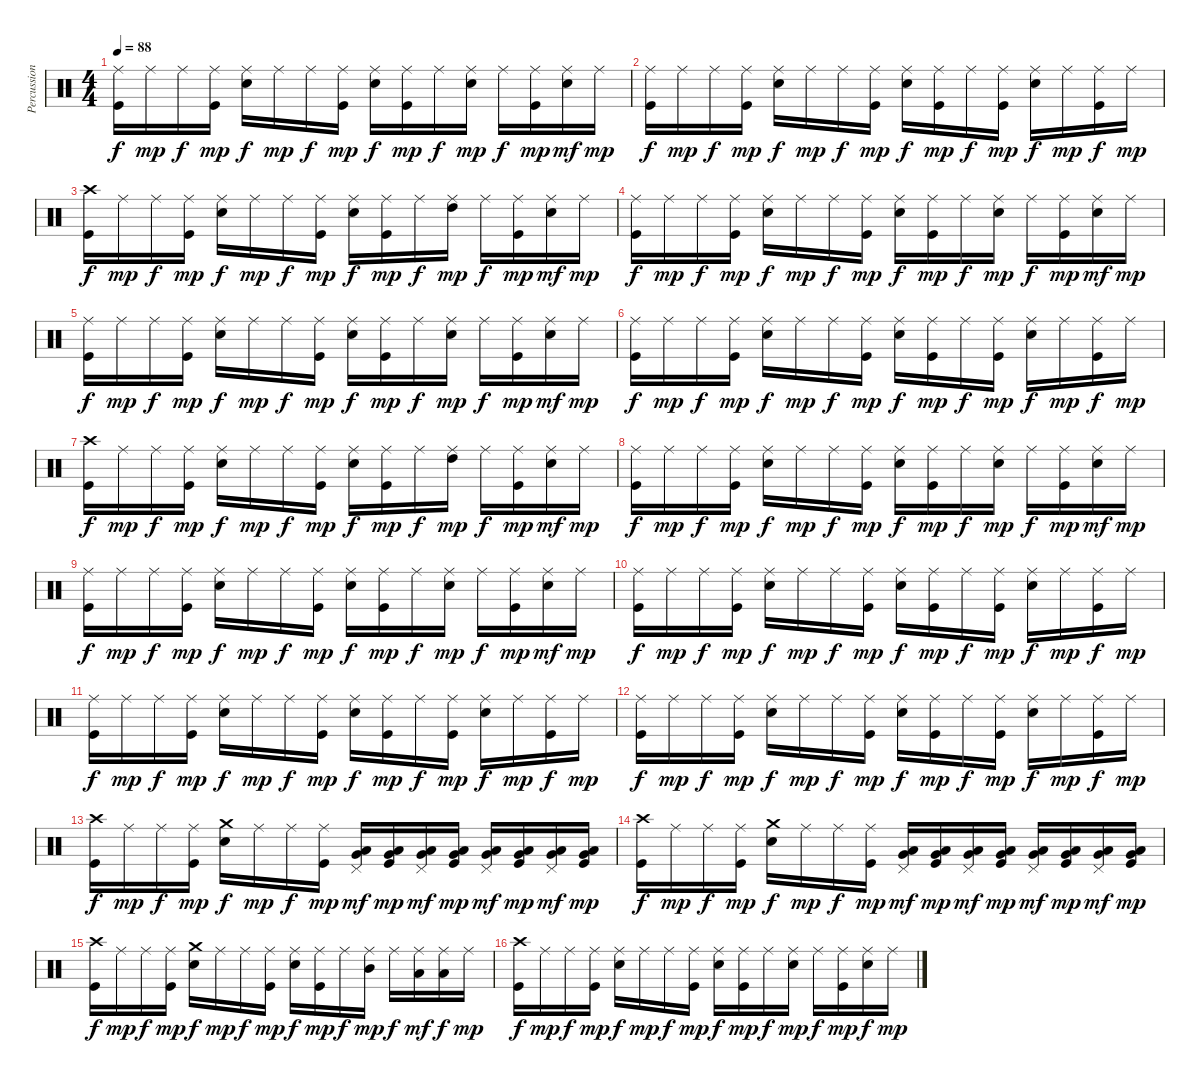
\track ("Percussion" "Percussion") {instrument percussion}
\staff {score}
\articulation defaults
\ts (4 4)
\tempo 88
\clef neutral
\ks c
("Ride (middle)" "Kick (hit)").16{dy f} "Ride (middle)".16{dy mp} "Ride (middle)".16{dy f} ("Ride (middle)" "Kick (hit)").16{dy mp} ("Ride (middle)" "Snare (hit) 2").16{dy f} "Ride (middle)".16{dy mp} "Ride (middle)".16{dy f} ("Ride (middle)" "Kick (hit)").16{dy mp} ("Ride (middle)" "Snare (hit) 2").16{dy f} ("Ride (middle)" "Kick (hit)").16{dy mp} "Ride (middle)".16{dy f} ("Ride (middle)" "Snare (hit) 2").16{dy mp} "Ride (middle)".16{dy f} ("Ride (middle)" "Kick (hit)").16{dy mp} ("Ride (middle)" "Snare (hit) 2").16{dy mf} "Ride (middle)".16{dy mp} |
("Ride (middle)" "Kick (hit)").16{dy f} "Ride (middle)".16{dy mp} "Ride (middle)".16{dy f} ("Ride (middle)" "Kick (hit)").16{dy mp} ("Ride (middle)" "Snare (hit) 2").16{dy f} "Ride (middle)".16{dy mp} "Ride (middle)".16{dy f} ("Ride (middle)" "Kick (hit)").16{dy mp} ("Ride (middle)" "Snare (hit) 2").16{dy f} ("Ride (middle)" "Kick (hit)").16{dy mp} "Ride (middle)".16{dy f} ("Ride (middle)" "Kick (hit)").16{dy mp} ("Ride (middle)" "Snare (hit) 2").16{dy f} "Ride (middle)".16{dy mp} ("Ride (middle)" "Kick (hit)").16{dy f} "Ride (middle)".16{dy mp} |
("Crash high (hit)" "Kick (hit)").16{dy f} "Ride (middle)".16{dy mp} "Ride (middle)".16{dy f} ("Ride (middle)" "Kick (hit)").16{dy mp} ("Ride (middle)" "Snare (hit) 2").16{dy f} "Ride (middle)".16{dy mp} "Ride (middle)".16{dy f} ("Ride (middle)" "Kick (hit)").16{dy mp} ("Ride (middle)" "Snare (hit) 2").16{dy f} ("Ride (middle)" "Kick (hit)").16{dy mp} "Ride (middle)".16{dy f} ("Ride (middle)" "High Tom (hit)").16{dy mp} "Ride (middle)".16{dy f} ("Ride (middle)" "Kick (hit)").16{dy mp} ("Ride (middle)" "Snare (hit) 2").16{dy mf} "Ride (middle)".16{dy mp} |
("Ride (middle)" "Kick (hit)").16{dy f} "Ride (middle)".16{dy mp} "Ride (middle)".16{dy f} ("Ride (middle)" "Kick (hit)").16{dy mp} ("Ride (middle)" "Snare (hit) 2").16{dy f} "Ride (middle)".16{dy mp} "Ride (middle)".16{dy f} ("Ride (middle)" "Kick (hit)").16{dy mp} ("Ride (middle)" "Snare (hit) 2").16{dy f} ("Ride (middle)" "Kick (hit)").16{dy mp} "Ride (middle)".16{dy f} ("Ride (middle)" "Snare (hit) 2").16{dy mp} "Ride (middle)".16{dy f} ("Ride (middle)" "Kick (hit)").16{dy mp} ("Ride (middle)" "Snare (hit) 2").16{dy mf} "Ride (middle)".16{dy mp} |
("Ride (middle)" "Kick (hit)").16{dy f} "Ride (middle)".16{dy mp} "Ride (middle)".16{dy f} ("Ride (middle)" "Kick (hit)").16{dy mp} ("Ride (middle)" "Snare (hit) 2").16{dy f} "Ride (middle)".16{dy mp} "Ride (middle)".16{dy f} ("Ride (middle)" "Kick (hit)").16{dy mp} ("Ride (middle)" "Snare (hit) 2").16{dy f} ("Ride (middle)" "Kick (hit)").16{dy mp} "Ride (middle)".16{dy f} ("Ride (middle)" "Snare (hit) 2").16{dy mp} "Ride (middle)".16{dy f} ("Ride (middle)" "Kick (hit)").16{dy mp} ("Ride (middle)" "Snare (hit) 2").16{dy mf} "Ride (middle)".16{dy mp} |
("Ride (middle)" "Kick (hit)").16{dy f} "Ride (middle)".16{dy mp} "Ride (middle)".16{dy f} ("Ride (middle)" "Kick (hit)").16{dy mp} ("Ride (middle)" "Snare (hit) 2").16{dy f} "Ride (middle)".16{dy mp} "Ride (middle)".16{dy f} ("Ride (middle)" "Kick (hit)").16{dy mp} ("Ride (middle)" "Snare (hit) 2").16{dy f} ("Ride (middle)" "Kick (hit)").16{dy mp} "Ride (middle)".16{dy f} ("Ride (middle)" "Kick (hit)").16{dy mp} ("Ride (middle)" "Snare (hit) 2").16{dy f} "Ride (middle)".16{dy mp} ("Ride (middle)" "Kick (hit)").16{dy f} "Ride (middle)".16{dy mp} |
("Crash high (hit)" "Kick (hit)").16{dy f} "Ride (middle)".16{dy mp} "Ride (middle)".16{dy f} ("Ride (middle)" "Kick (hit)").16{dy mp} ("Ride (middle)" "Snare (hit) 2").16{dy f} "Ride (middle)".16{dy mp} "Ride (middle)".16{dy f} ("Ride (middle)" "Kick (hit)").16{dy mp} ("Ride (middle)" "Snare (hit) 2").16{dy f} ("Ride (middle)" "Kick (hit)").16{dy mp} "Ride (middle)".16{dy f} ("Ride (middle)" "High Tom (hit)").16{dy mp} "Ride (middle)".16{dy f} ("Ride (middle)" "Kick (hit)").16{dy mp} ("Ride (middle)" "Snare (hit) 2").16{dy mf} "Ride (middle)".16{dy mp} |
("Ride (middle)" "Kick (hit)").16{dy f} "Ride (middle)".16{dy mp} "Ride (middle)".16{dy f} ("Ride (middle)" "Kick (hit)").16{dy mp} ("Ride (middle)" "Snare (hit) 2").16{dy f} "Ride (middle)".16{dy mp} "Ride (middle)".16{dy f} ("Ride (middle)" "Kick (hit)").16{dy mp} ("Ride (middle)" "Snare (hit) 2").16{dy f} ("Ride (middle)" "Kick (hit)").16{dy mp} "Ride (middle)".16{dy f} ("Ride (middle)" "Snare (hit) 2").16{dy mp} "Ride (middle)".16{dy f} ("Ride (middle)" "Kick (hit)").16{dy mp} ("Ride (middle)" "Snare (hit) 2").16{dy mf} "Ride (middle)".16{dy mp} |
("Ride (middle)" "Kick (hit)").16{dy f} "Ride (middle)".16{dy mp} "Ride (middle)".16{dy f} ("Ride (middle)" "Kick (hit)").16{dy mp} ("Ride (middle)" "Snare (hit) 2").16{dy f} "Ride (middle)".16{dy mp} "Ride (middle)".16{dy f} ("Ride (middle)" "Kick (hit)").16{dy mp} ("Ride (middle)" "Snare (hit) 2").16{dy f} ("Ride (middle)" "Kick (hit)").16{dy mp} "Ride (middle)".16{dy f} ("Ride (middle)" "Snare (hit) 2").16{dy mp} "Ride (middle)".16{dy f} ("Ride (middle)" "Kick (hit)").16{dy mp} ("Ride (middle)" "Snare (hit) 2").16{dy mf} "Ride (middle)".16{dy mp} |
("Ride (middle)" "Kick (hit)").16{dy f} "Ride (middle)".16{dy mp} "Ride (middle)".16{dy f} ("Ride (middle)" "Kick (hit)").16{dy mp} ("Ride (middle)" "Snare (hit) 2").16{dy f} "Ride (middle)".16{dy mp} "Ride (middle)".16{dy f} ("Ride (middle)" "Kick (hit)").16{dy mp} ("Ride (middle)" "Snare (hit) 2").16{dy f} ("Ride (middle)" "Kick (hit)").16{dy mp} "Ride (middle)".16{dy f} ("Ride (middle)" "Kick (hit)").16{dy mp} ("Ride (middle)" "Snare (hit) 2").16{dy f} "Ride (middle)".16{dy mp} ("Ride (middle)" "Kick (hit)").16{dy f} "Ride (middle)".16{dy mp} |
("Ride (middle)" "Kick (hit)").16{dy f} "Ride (middle)".16{dy mp} "Ride (middle)".16{dy f} ("Ride (middle)" "Kick (hit)").16{dy mp} ("Ride (middle)" "Snare (hit) 2").16{dy f} "Ride (middle)".16{dy mp} "Ride (middle)".16{dy f} ("Ride (middle)" "Kick (hit)").16{dy mp} ("Ride (middle)" "Snare (hit) 2").16{dy f} ("Ride (middle)" "Kick (hit)").16{dy mp} "Ride (middle)".16{dy f} ("Ride (middle)" "Kick (hit)").16{dy mp} ("Ride (middle)" "Snare (hit) 2").16{dy f} "Ride (middle)".16{dy mp} ("Ride (middle)" "Kick (hit)").16{dy f} "Ride (middle)".16{dy mp} |
("Ride (middle)" "Kick (hit)").16{dy f} "Ride (middle)".16{dy mp} "Ride (middle)".16{dy f} ("Ride (middle)" "Kick (hit)").16{dy mp} ("Ride (middle)" "Snare (hit) 2").16{dy f} "Ride (middle)".16{dy mp} "Ride (middle)".16{dy f} ("Ride (middle)" "Kick (hit)").16{dy mp} ("Ride (middle)" "Snare (hit) 2").16{dy f} ("Ride (middle)" "Kick (hit)").16{dy mp} "Ride (middle)".16{dy f} ("Ride (middle)" "Kick (hit)").16{dy mp} ("Ride (middle)" "Snare (hit) 2").16{dy f} "Ride (middle)".16{dy mp} ("Ride (middle)" "Kick (hit)").16{dy f} "Ride (middle)".16{dy mp} |
("Crash high (hit)" "Kick (hit)").16{dy f} "Ride (middle)".16{dy mp} "Ride (middle)".16{dy f} ("Ride (middle)" "Kick (hit)").16{dy mp} ("Crash medium (hit)" "Snare (hit) 2").16{dy f} "Ride (middle)".16{dy mp} "Ride (middle)".16{dy f} ("Ride (middle)" "Kick (hit)").16{dy mp} ("Pedal Hi-Hat (hit)" "Very Low Tom (hit)" "Low Tom (hit)").16{dy mf} ("Very Low Tom (hit)" "Low Tom (hit)" "Kick (hit)").16{dy mp} ("Pedal Hi-Hat (hit)" "Very Low Tom (hit)" "Low Tom (hit)").16{dy mf} ("Very Low Tom (hit)" "Low Tom (hit)" "Kick (hit)").16{dy mp} ("Pedal Hi-Hat (hit)" "Very Low Tom (hit)" "Low Tom (hit)").16{dy mf} ("Very Low Tom (hit)" "Low Tom (hit)" "Kick (hit)").16{dy mp} ("Pedal Hi-Hat (hit)" "Very Low Tom (hit)" "Low Tom (hit)").16{dy mf} ("Very Low Tom (hit)" "Low Tom (hit)" "Kick (hit)").16{dy mp} |
("Crash high (hit)" "Kick (hit)").16{dy f} "Ride (middle)".16{dy mp} "Ride (middle)".16{dy f} ("Ride (middle)" "Kick (hit)").16{dy mp} ("Crash medium (hit)" "Snare (hit) 2").16{dy f} "Ride (middle)".16{dy mp} "Ride (middle)".16{dy f} ("Ride (middle)" "Kick (hit)").16{dy mp} ("Pedal Hi-Hat (hit)" "Very Low Tom (hit)" "Low Tom (hit)").16{dy mf} ("Very Low Tom (hit)" "Low Tom (hit)" "Kick (hit)").16{dy mp} ("Pedal Hi-Hat (hit)" "Very Low Tom (hit)" "Low Tom (hit)").16{dy mf} ("Very Low Tom (hit)" "Low Tom (hit)" "Kick (hit)").16{dy mp} ("Pedal Hi-Hat (hit)" "Very Low Tom (hit)" "Low Tom (hit)").16{dy mf} ("Very Low Tom (hit)" "Low Tom (hit)" "Kick (hit)").16{dy mp} ("Pedal Hi-Hat (hit)" "Very Low Tom (hit)" "Low Tom (hit)").16{dy mf} ("Very Low Tom (hit)" "Low Tom (hit)" "Kick (hit)").16{dy mp} |
("Crash high (hit)" "Kick (hit)").16{dy f} "Ride (middle)".16{dy mp} "Ride (middle)".16{dy f} ("Ride (middle)" "Kick (hit)").16{dy mp} ("Crash medium (hit)" "Snare (hit) 2").16{dy f} "Ride (middle)".16{dy mp} "Ride (middle)".16{dy f} ("Ride (middle)" "Kick (hit)").16{dy mp} ("Ride (middle)" "Snare (hit) 2").16{dy f} ("Ride (middle)" "Kick (hit)").16{dy mp} "Ride (middle)".16{dy f} ("Ride (middle)" "Mid Tom (hit)").16{dy mp} "Ride (middle)".16{dy f} ("Ride (middle)" "Low Tom (hit)").16{dy mf} ("Ride (middle)" "Low Tom (hit)").16{dy f} "Ride (middle)".16{dy mp} |
("Crash high (hit)" "Kick (hit)").16{dy f} "Ride (middle)".16{dy mp} "Ride (middle)".16{dy f} ("Ride (middle)" "Kick (hit)").16{dy mp} ("Ride (middle)" "Snare (hit) 2").16{dy f} "Ride (middle)".16{dy mp} "Ride (middle)".16{dy f} ("Ride (middle)" "Kick (hit)").16{dy mp} ("Ride (middle)" "Snare (hit) 2").16{dy f} ("Ride (middle)" "Kick (hit)").16{dy mp} "Ride (middle)".16{dy f} ("Ride (middle)" "Snare (hit) 2").16{dy mp} "Ride (middle)".16{dy f} ("Ride (middle)" "Kick (hit)").16{dy mp} ("Ride (middle)" "Snare (hit) 2").16{dy f} "Ride (middle)".16{dy mp}
